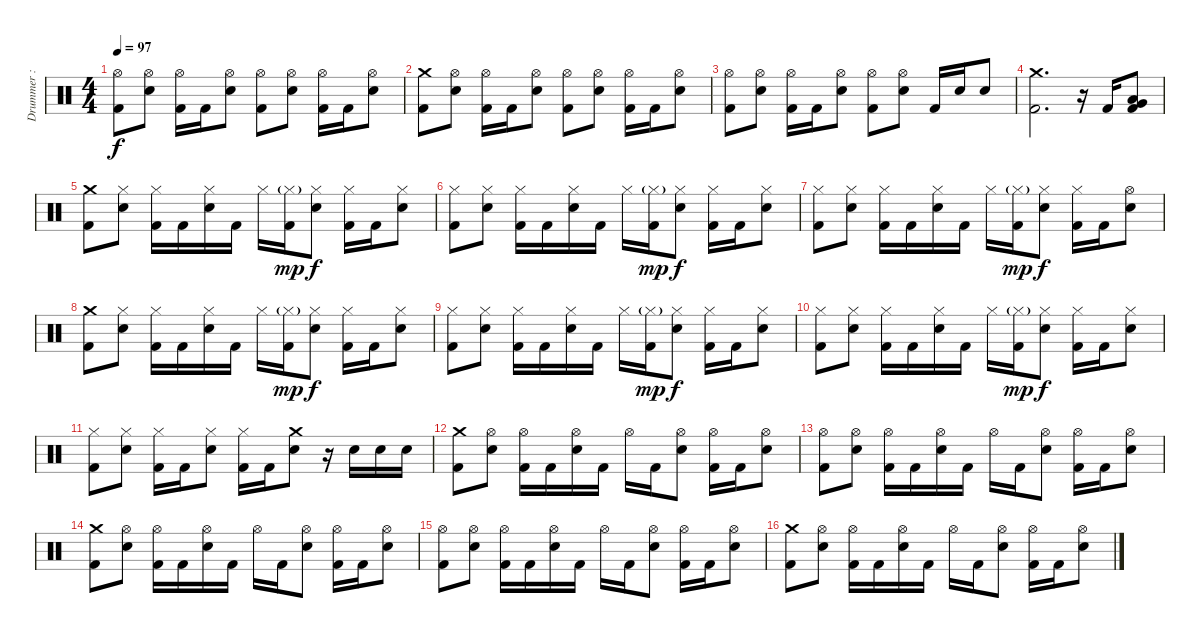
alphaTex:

\track ("Drummer : Tainaka Ritsu - Tan" "Drummer : ") {instrument percussion}
\staff {score}
\articulation defaults
\ts (4 4)
\tempo 97
\clef neutral
\ks c
("Hi-Hat (open)" "Kick (hit) 2").8{dy f} ("Hi-Hat (open)" "Electric Snare (hit)").8 ("Hi-Hat (open)" "Kick (hit) 2").16 "Kick (hit) 2".16 ("Hi-Hat (open)" "Electric Snare (hit)").8 ("Hi-Hat (open)" "Kick (hit) 2").8 ("Hi-Hat (open)" "Electric Snare (hit)").8 ("Hi-Hat (open)" "Kick (hit) 2").16 "Kick (hit) 2".16 ("Hi-Hat (open)" "Electric Snare (hit)").8 |
("Crash medium (hit)" "Kick (hit) 2").8 ("Hi-Hat (open)" "Electric Snare (hit)").8 ("Hi-Hat (open)" "Kick (hit) 2").16 "Kick (hit) 2".16 ("Hi-Hat (open)" "Electric Snare (hit)").8 ("Hi-Hat (open)" "Kick (hit) 2").8 ("Hi-Hat (open)" "Electric Snare (hit)").8 ("Hi-Hat (open)" "Kick (hit) 2").16 "Kick (hit) 2".16 ("Hi-Hat (open)" "Electric Snare (hit)").8 |
("Hi-Hat (open)" "Kick (hit) 2").8 ("Hi-Hat (open)" "Electric Snare (hit)").8 ("Hi-Hat (open)" "Kick (hit) 2").16 "Kick (hit) 2".16 ("Hi-Hat (open)" "Electric Snare (hit)").8 ("Hi-Hat (open)" "Kick (hit) 2").8 ("Hi-Hat (open)" "Electric Snare (hit)").8 "Kick (hit) 2".16 "Electric Snare (hit)".16 "Electric Snare (hit)".8 |
("Crash medium (hit)" "Kick (hit) 2").2{d} r.16 "Kick (hit) 2".16 ("Very Low Tom (hit)" "Low Floor Tom (hit)" "Kick (hit) 2").8 |
("Crash medium (hit)" "Kick (hit) 2").8 ("Hi-Hat (closed)" "Electric Snare (hit)").8 ("Hi-Hat (closed)" "Kick (hit) 2").16 "Kick (hit) 2".16 ("Hi-Hat (closed)" "Electric Snare (hit)").16 "Kick (hit) 2".16 "Hi-Hat (closed)".16 ("Hi-Hat (closed)"{g} "Kick (hit) 2").16{dy mp} ("Hi-Hat (closed)" "Electric Snare (hit)").8{dy f} ("Hi-Hat (closed)" "Kick (hit) 2").16 "Kick (hit) 2".16 ("Hi-Hat (closed)" "Electric Snare (hit)").8 |
("Hi-Hat (closed)" "Kick (hit) 2").8 ("Hi-Hat (closed)" "Electric Snare (hit)").8 ("Hi-Hat (closed)" "Kick (hit) 2").16 "Kick (hit) 2".16 ("Hi-Hat (closed)" "Electric Snare (hit)").16 "Kick (hit) 2".16 "Hi-Hat (closed)".16 ("Hi-Hat (closed)"{g} "Kick (hit) 2").16{dy mp} ("Hi-Hat (closed)" "Electric Snare (hit)").8{dy f} ("Hi-Hat (closed)" "Kick (hit) 2").16 "Kick (hit) 2".16 ("Hi-Hat (closed)" "Electric Snare (hit)").8 |
("Hi-Hat (closed)" "Kick (hit) 2").8 ("Hi-Hat (closed)" "Electric Snare (hit)").8 ("Hi-Hat (closed)" "Kick (hit) 2").16 "Kick (hit) 2".16 ("Hi-Hat (closed)" "Electric Snare (hit)").16 "Kick (hit) 2".16 "Hi-Hat (closed)".16 ("Hi-Hat (closed)"{g} "Kick (hit) 2").16{dy mp} ("Hi-Hat (closed)" "Electric Snare (hit)").8{dy f} ("Hi-Hat (closed)" "Kick (hit) 2").16 "Kick (hit) 2".16 ("Hi-Hat (open)" "Electric Snare (hit)").8 |
("Crash medium (hit)" "Kick (hit) 2").8 ("Hi-Hat (closed)" "Electric Snare (hit)").8 ("Hi-Hat (closed)" "Kick (hit) 2").16 "Kick (hit) 2".16 ("Hi-Hat (closed)" "Electric Snare (hit)").16 "Kick (hit) 2".16 "Hi-Hat (closed)".16 ("Hi-Hat (closed)"{g} "Kick (hit) 2").16{dy mp} ("Hi-Hat (closed)" "Electric Snare (hit)").8{dy f} ("Hi-Hat (closed)" "Kick (hit) 2").16 "Kick (hit) 2".16 ("Hi-Hat (closed)" "Electric Snare (hit)").8 |
("Hi-Hat (closed)" "Kick (hit) 2").8 ("Hi-Hat (closed)" "Electric Snare (hit)").8 ("Hi-Hat (closed)" "Kick (hit) 2").16 "Kick (hit) 2".16 ("Hi-Hat (closed)" "Electric Snare (hit)").16 "Kick (hit) 2".16 "Hi-Hat (closed)".16 ("Hi-Hat (closed)"{g} "Kick (hit) 2").16{dy mp} ("Hi-Hat (closed)" "Electric Snare (hit)").8{dy f} ("Hi-Hat (closed)" "Kick (hit) 2").16 "Kick (hit) 2".16 ("Hi-Hat (closed)" "Electric Snare (hit)").8 |
("Hi-Hat (closed)" "Kick (hit) 2").8 ("Hi-Hat (closed)" "Electric Snare (hit)").8 ("Hi-Hat (closed)" "Kick (hit) 2").16 "Kick (hit) 2".16 ("Hi-Hat (closed)" "Electric Snare (hit)").16 "Kick (hit) 2".16 "Hi-Hat (closed)".16 ("Hi-Hat (closed)"{g} "Kick (hit) 2").16{dy mp} ("Hi-Hat (closed)" "Electric Snare (hit)").8{dy f} ("Hi-Hat (closed)" "Kick (hit) 2").16 "Kick (hit) 2".16 ("Hi-Hat (closed)" "Electric Snare (hit)").8 |
("Hi-Hat (closed)" "Kick (hit) 2").8 ("Hi-Hat (closed)" "Electric Snare (hit)").8 ("Hi-Hat (closed)" "Kick (hit) 2").16 "Kick (hit) 2".16 ("Hi-Hat (closed)" "Electric Snare (hit)").8 ("Hi-Hat (closed)" "Kick (hit) 2").16 "Kick (hit) 2".16 ("Crash medium (hit)" "Electric Snare (hit)").8 r.16 "Electric Snare (hit)".16 "Electric Snare (hit)".16 "Electric Snare (hit)".16 |
("Crash medium (hit)" "Kick (hit) 2").8 ("Hi-Hat (open)" "Electric Snare (hit)").8 ("Hi-Hat (open)" "Kick (hit) 2").16 "Kick (hit) 2".16 ("Hi-Hat (open)" "Electric Snare (hit)").16 "Kick (hit) 2".16 "Hi-Hat (open)".16 "Kick (hit) 2".16 ("Hi-Hat (open)" "Electric Snare (hit)").8 ("Hi-Hat (open)" "Kick (hit) 2").16 "Kick (hit) 2".16 ("Hi-Hat (open)" "Electric Snare (hit)").8 |
("Hi-Hat (open)" "Kick (hit) 2").8 ("Hi-Hat (open)" "Electric Snare (hit)").8 ("Hi-Hat (open)" "Kick (hit) 2").16 "Kick (hit) 2".16 ("Hi-Hat (open)" "Electric Snare (hit)").16 "Kick (hit) 2".16 "Hi-Hat (open)".16 "Kick (hit) 2".16 ("Hi-Hat (open)" "Electric Snare (hit)").8 ("Hi-Hat (open)" "Kick (hit) 2").16 "Kick (hit) 2".16 ("Hi-Hat (open)" "Electric Snare (hit)").8 |
("Crash medium (hit)" "Kick (hit) 2").8 ("Hi-Hat (open)" "Electric Snare (hit)").8 ("Hi-Hat (open)" "Kick (hit) 2").16 "Kick (hit) 2".16 ("Hi-Hat (open)" "Electric Snare (hit)").16 "Kick (hit) 2".16 "Hi-Hat (open)".16 "Kick (hit) 2".16 ("Hi-Hat (open)" "Electric Snare (hit)").8 ("Hi-Hat (open)" "Kick (hit) 2").16 "Kick (hit) 2".16 ("Hi-Hat (open)" "Electric Snare (hit)").8 |
("Hi-Hat (open)" "Kick (hit) 2").8 ("Hi-Hat (open)" "Electric Snare (hit)").8 ("Hi-Hat (open)" "Kick (hit) 2").16 "Kick (hit) 2".16 ("Hi-Hat (open)" "Electric Snare (hit)").16 "Kick (hit) 2".16 "Hi-Hat (open)".16 "Kick (hit) 2".16 ("Hi-Hat (open)" "Electric Snare (hit)").8 ("Hi-Hat (open)" "Kick (hit) 2").16 "Kick (hit) 2".16 ("Hi-Hat (open)" "Electric Snare (hit)").8 |
("Crash medium (hit)" "Kick (hit) 2").8 ("Hi-Hat (open)" "Electric Snare (hit)").8 ("Hi-Hat (open)" "Kick (hit) 2").16 "Kick (hit) 2".16 ("Hi-Hat (open)" "Electric Snare (hit)").16 "Kick (hit) 2".16 "Hi-Hat (open)".16 "Kick (hit) 2".16 ("Hi-Hat (open)" "Electric Snare (hit)").8 ("Hi-Hat (open)" "Kick (hit) 2").16 "Kick (hit) 2".16 ("Hi-Hat (open)" "Electric Snare (hit)").8
